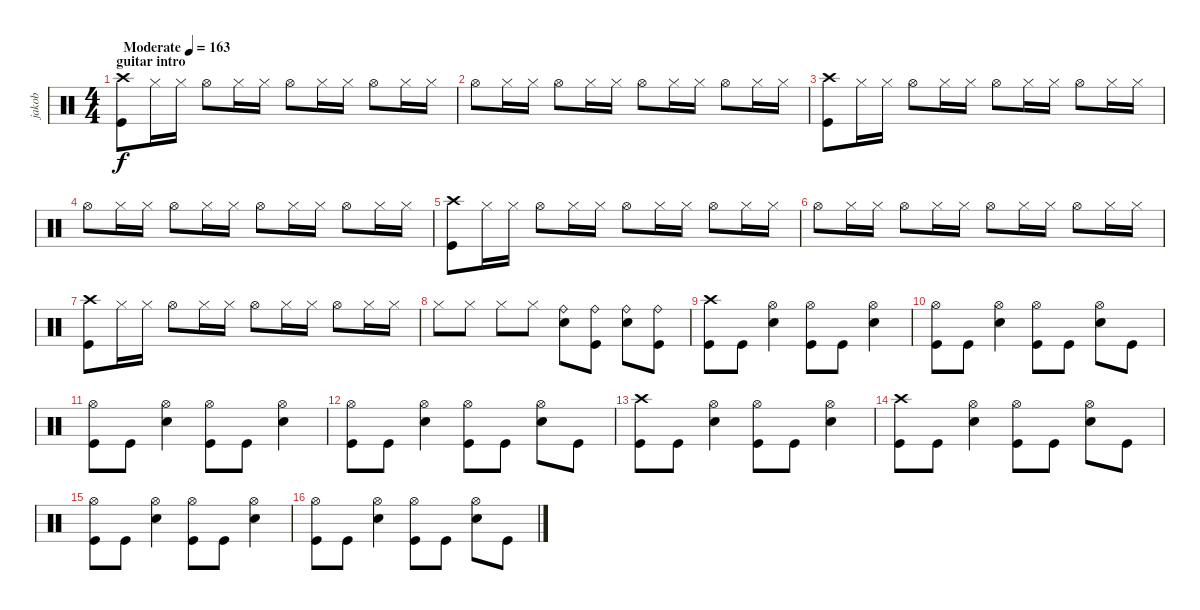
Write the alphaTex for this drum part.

\track ("jakob" "jakob") {instrument percussion}
\staff {score}
\articulation defaults
\ts (4 4)
\section ("" "guitar intro")
\tempo (163 "Moderate")
\clef neutral
\ks c
("Crash high (hit)" "Kick (hit)").8{dy f} "Hi-Hat (closed)".16 "Hi-Hat (closed)".16 "Hi-Hat (open)".8 "Hi-Hat (closed)".16 "Hi-Hat (closed)".16 "Hi-Hat (open)".8 "Hi-Hat (closed)".16 "Hi-Hat (closed)".16 "Hi-Hat (open)".8 "Hi-Hat (closed)".16 "Hi-Hat (closed)".16 |
"Hi-Hat (open)".8 "Hi-Hat (closed)".16 "Hi-Hat (closed)".16 "Hi-Hat (open)".8 "Hi-Hat (closed)".16 "Hi-Hat (closed)".16 "Hi-Hat (open)".8 "Hi-Hat (closed)".16 "Hi-Hat (closed)".16 "Hi-Hat (open)".8 "Hi-Hat (closed)".16 "Hi-Hat (closed)".16 |
("Crash high (hit)" "Kick (hit)").8 "Hi-Hat (closed)".16 "Hi-Hat (closed)".16 "Hi-Hat (open)".8 "Hi-Hat (closed)".16 "Hi-Hat (closed)".16 "Hi-Hat (open)".8 "Hi-Hat (closed)".16 "Hi-Hat (closed)".16 "Hi-Hat (open)".8 "Hi-Hat (closed)".16 "Hi-Hat (closed)".16 |
"Hi-Hat (open)".8 "Hi-Hat (closed)".16 "Hi-Hat (closed)".16 "Hi-Hat (open)".8 "Hi-Hat (closed)".16 "Hi-Hat (closed)".16 "Hi-Hat (open)".8 "Hi-Hat (closed)".16 "Hi-Hat (closed)".16 "Hi-Hat (open)".8 "Hi-Hat (closed)".16 "Hi-Hat (closed)".16 |
("Crash high (hit)" "Kick (hit)").8 "Hi-Hat (closed)".16 "Hi-Hat (closed)".16 "Hi-Hat (open)".8 "Hi-Hat (closed)".16 "Hi-Hat (closed)".16 "Hi-Hat (open)".8 "Hi-Hat (closed)".16 "Hi-Hat (closed)".16 "Hi-Hat (open)".8 "Hi-Hat (closed)".16 "Hi-Hat (closed)".16 |
"Hi-Hat (open)".8 "Hi-Hat (closed)".16 "Hi-Hat (closed)".16 "Hi-Hat (open)".8 "Hi-Hat (closed)".16 "Hi-Hat (closed)".16 "Hi-Hat (open)".8 "Hi-Hat (closed)".16 "Hi-Hat (closed)".16 "Hi-Hat (open)".8 "Hi-Hat (closed)".16 "Hi-Hat (closed)".16 |
("Crash high (hit)" "Kick (hit)").8 "Hi-Hat (closed)".16 "Hi-Hat (closed)".16 "Hi-Hat (open)".8 "Hi-Hat (closed)".16 "Hi-Hat (closed)".16 "Hi-Hat (open)".8 "Hi-Hat (closed)".16 "Hi-Hat (closed)".16 "Hi-Hat (open)".8 "Hi-Hat (closed)".16 "Hi-Hat (closed)".16 |
"Hi-Hat (closed)".8 "Hi-Hat (closed)".8 "Hi-Hat (closed)".8 "Hi-Hat (closed)".8 ("Electric Snare (hit)" "Ride (bell)").8 ("Kick (hit)" "Ride (bell)").8 ("Electric Snare (hit)" "Ride (bell)").8 ("Kick (hit)" "Ride (bell)").8 |
("Crash high (hit)" "Kick (hit)").8 "Kick (hit)".8 ("Hi-Hat (open)" "Electric Snare (hit)").4 ("Hi-Hat (open)" "Kick (hit)").8 "Kick (hit)".8 ("Hi-Hat (open)" "Electric Snare (hit)").4 |
("Hi-Hat (open)" "Kick (hit)").8 "Kick (hit)".8 ("Hi-Hat (open)" "Electric Snare (hit)").4 ("Hi-Hat (open)" "Kick (hit)").8 "Kick (hit)".8 ("Hi-Hat (open)" "Electric Snare (hit)").8 "Kick (hit)".8 |
("Hi-Hat (open)" "Kick (hit)").8 "Kick (hit)".8 ("Hi-Hat (open)" "Electric Snare (hit)").4 ("Hi-Hat (open)" "Kick (hit)").8 "Kick (hit)".8 ("Hi-Hat (open)" "Electric Snare (hit)").4 |
("Hi-Hat (open)" "Kick (hit)").8 "Kick (hit)".8 ("Hi-Hat (open)" "Electric Snare (hit)").4 ("Hi-Hat (open)" "Kick (hit)").8 "Kick (hit)".8 ("Hi-Hat (open)" "Electric Snare (hit)").8 "Kick (hit)".8 |
("Crash high (hit)" "Kick (hit)").8 "Kick (hit)".8 ("Hi-Hat (open)" "Electric Snare (hit)").4 ("Hi-Hat (open)" "Kick (hit)").8 "Kick (hit)".8 ("Hi-Hat (open)" "Electric Snare (hit)").4 |
("Crash high (hit)" "Kick (hit)").8 "Kick (hit)".8 ("Hi-Hat (open)" "Electric Snare (hit)").4 ("Hi-Hat (open)" "Kick (hit)").8 "Kick (hit)".8 ("Hi-Hat (open)" "Electric Snare (hit)").8 "Kick (hit)".8 |
("Hi-Hat (open)" "Kick (hit)").8 "Kick (hit)".8 ("Hi-Hat (open)" "Electric Snare (hit)").4 ("Hi-Hat (open)" "Kick (hit)").8 "Kick (hit)".8 ("Hi-Hat (open)" "Electric Snare (hit)").4 |
("Hi-Hat (open)" "Kick (hit)").8 "Kick (hit)".8 ("Hi-Hat (open)" "Electric Snare (hit)").4 ("Hi-Hat (open)" "Kick (hit)").8 "Kick (hit)".8 ("Hi-Hat (open)" "Electric Snare (hit)").8 "Kick (hit)".8
